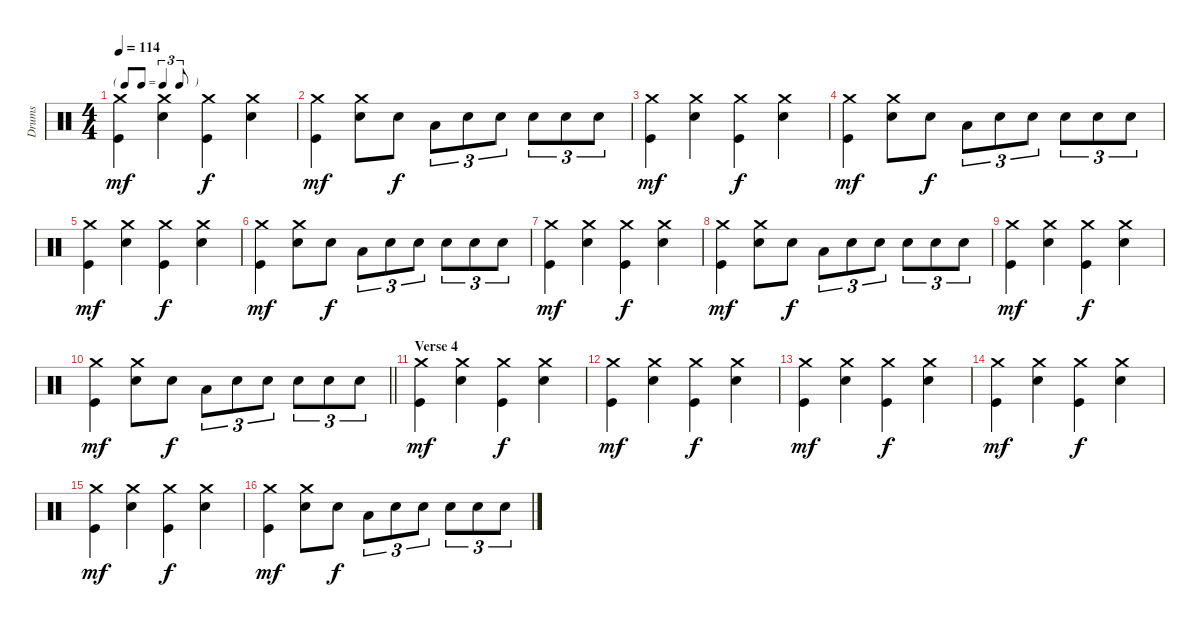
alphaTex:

\track ("Drums" "Drums") {instrument percussion}
\staff {score}
\articulation defaults
\ts (4 4)
\tf triplet8th
\tempo 114
\clef neutral
\ks c
("Crash medium (hit)" "Kick (hit)").4{dy mf beam merge} ("Crash medium (hit)" "Snare (hit) 2").4 ("Crash medium (hit)" "Kick (hit)").4{dy f beam merge} ("Crash medium (hit)" "Snare (hit) 2").4 |
("Crash medium (hit)" "Kick (hit)").4{dy mf beam merge} ("Crash medium (hit)" "Snare (hit) 2").8 "Snare (hit) 2".8{dy f} "Low Tom (hit)".8{tu (3 2)} "Snare (hit) 2".8{tu (3 2)} "Snare (hit) 2".8{tu (3 2)} "Snare (hit) 2".8{tu (3 2)} "Snare (hit) 2".8{tu (3 2)} "Snare (hit) 2".8{tu (3 2)} |
("Crash medium (hit)" "Kick (hit)").4{dy mf beam merge} ("Crash medium (hit)" "Snare (hit) 2").4 ("Crash medium (hit)" "Kick (hit)").4{dy f beam merge} ("Crash medium (hit)" "Snare (hit) 2").4 |
("Crash medium (hit)" "Kick (hit)").4{dy mf beam merge} ("Crash medium (hit)" "Snare (hit) 2").8 "Snare (hit) 2".8{dy f} "Low Tom (hit)".8{tu (3 2)} "Snare (hit) 2".8{tu (3 2)} "Snare (hit) 2".8{tu (3 2)} "Snare (hit) 2".8{tu (3 2)} "Snare (hit) 2".8{tu (3 2)} "Snare (hit) 2".8{tu (3 2)} |
("Crash medium (hit)" "Kick (hit)").4{dy mf beam merge} ("Crash medium (hit)" "Snare (hit) 2").4 ("Crash medium (hit)" "Kick (hit)").4{dy f beam merge} ("Crash medium (hit)" "Snare (hit) 2").4 |
("Crash medium (hit)" "Kick (hit)").4{dy mf beam merge} ("Crash medium (hit)" "Snare (hit) 2").8 "Snare (hit) 2".8{dy f} "Low Tom (hit)".8{tu (3 2)} "Snare (hit) 2".8{tu (3 2)} "Snare (hit) 2".8{tu (3 2)} "Snare (hit) 2".8{tu (3 2)} "Snare (hit) 2".8{tu (3 2)} "Snare (hit) 2".8{tu (3 2)} |
("Crash medium (hit)" "Kick (hit)").4{dy mf beam merge} ("Crash medium (hit)" "Snare (hit) 2").4 ("Crash medium (hit)" "Kick (hit)").4{dy f beam merge} ("Crash medium (hit)" "Snare (hit) 2").4 |
("Crash medium (hit)" "Kick (hit)").4{dy mf beam merge} ("Crash medium (hit)" "Snare (hit) 2").8 "Snare (hit) 2".8{dy f} "Low Tom (hit)".8{tu (3 2)} "Snare (hit) 2".8{tu (3 2)} "Snare (hit) 2".8{tu (3 2)} "Snare (hit) 2".8{tu (3 2)} "Snare (hit) 2".8{tu (3 2)} "Snare (hit) 2".8{tu (3 2)} |
("Crash medium (hit)" "Kick (hit)").4{dy mf beam merge} ("Crash medium (hit)" "Snare (hit) 2").4 ("Crash medium (hit)" "Kick (hit)").4{dy f beam merge} ("Crash medium (hit)" "Snare (hit) 2").4 |
\barLineRight lightlight
("Crash medium (hit)" "Kick (hit)").4{dy mf beam merge} ("Crash medium (hit)" "Snare (hit) 2").8 "Snare (hit) 2".8{dy f} "Low Tom (hit)".8{tu (3 2)} "Snare (hit) 2".8{tu (3 2)} "Snare (hit) 2".8{tu (3 2)} "Snare (hit) 2".8{tu (3 2)} "Snare (hit) 2".8{tu (3 2)} "Snare (hit) 2".8{tu (3 2)} |
\section ("" "Verse 4")
("Crash medium (hit)" "Kick (hit)").4{dy mf beam merge} ("Crash medium (hit)" "Snare (hit) 2").4 ("Crash medium (hit)" "Kick (hit)").4{dy f beam merge} ("Crash medium (hit)" "Snare (hit) 2").4 |
("Crash medium (hit)" "Kick (hit)").4{dy mf beam merge} ("Crash medium (hit)" "Snare (hit) 2").4 ("Crash medium (hit)" "Kick (hit)").4{dy f beam merge} ("Crash medium (hit)" "Snare (hit) 2").4 |
("Crash medium (hit)" "Kick (hit)").4{dy mf beam merge} ("Crash medium (hit)" "Snare (hit) 2").4 ("Crash medium (hit)" "Kick (hit)").4{dy f beam merge} ("Crash medium (hit)" "Snare (hit) 2").4 |
("Crash medium (hit)" "Kick (hit)").4{dy mf beam merge} ("Crash medium (hit)" "Snare (hit) 2").4 ("Crash medium (hit)" "Kick (hit)").4{dy f beam merge} ("Crash medium (hit)" "Snare (hit) 2").4 |
("Crash medium (hit)" "Kick (hit)").4{dy mf beam merge} ("Crash medium (hit)" "Snare (hit) 2").4 ("Crash medium (hit)" "Kick (hit)").4{dy f beam merge} ("Crash medium (hit)" "Snare (hit) 2").4 |
("Crash medium (hit)" "Kick (hit)").4{dy mf beam merge} ("Crash medium (hit)" "Snare (hit) 2").8 "Snare (hit) 2".8{dy f} "Low Tom (hit)".8{tu (3 2)} "Snare (hit) 2".8{tu (3 2)} "Snare (hit) 2".8{tu (3 2)} "Snare (hit) 2".8{tu (3 2)} "Snare (hit) 2".8{tu (3 2)} "Snare (hit) 2".8{tu (3 2)}
